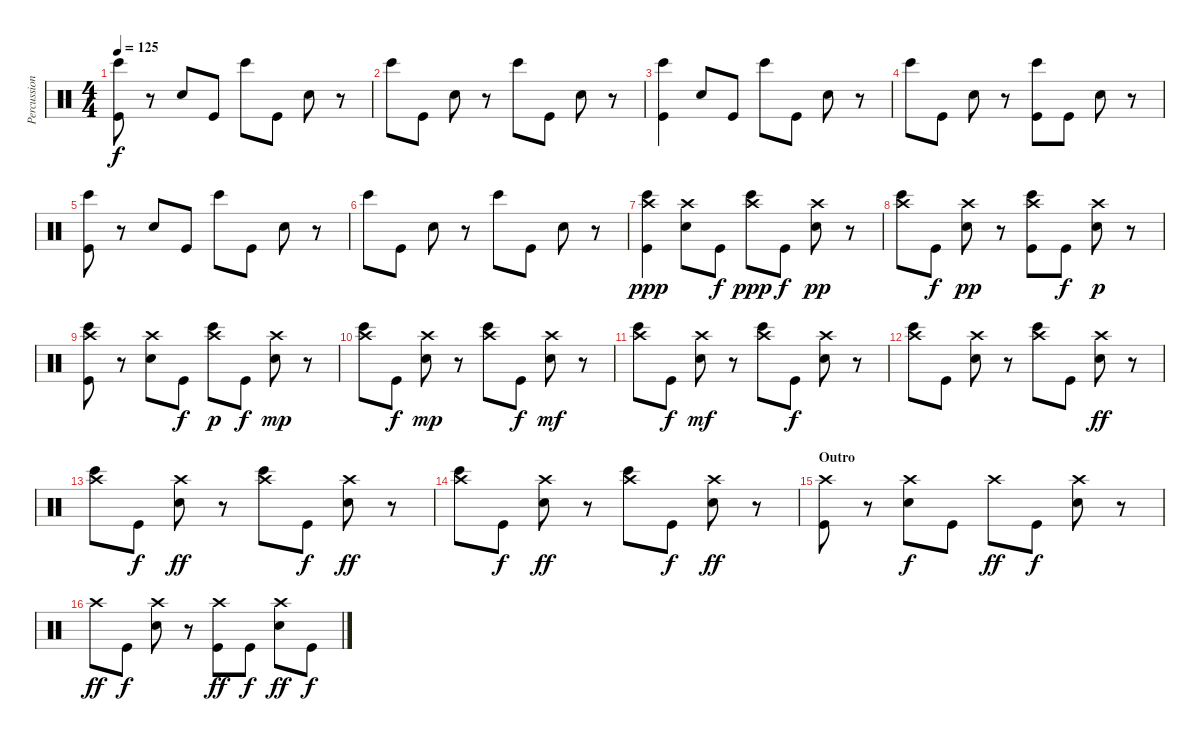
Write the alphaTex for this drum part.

\track ("Percussion" "Percussion") {instrument percussion}
\staff {score}
\articulation defaults
\ts (4 4)
\tempo 125
\clef neutral
\ks c
("Bongo High (hit)" "Kick (hit)").8{dy f} r.8 "Snare (hit) 2".8 "Kick (hit)".8 "Bongo High (hit)".8 "Kick (hit)".8 "Snare (hit) 2".8 r.8 |
"Bongo High (hit)".8 "Kick (hit)".8 "Snare (hit) 2".8 r.8 "Bongo High (hit)".8 "Kick (hit)".8 "Snare (hit) 2".8 r.8 |
("Bongo High (hit)" "Kick (hit)").4 "Snare (hit) 2".8 "Kick (hit)".8 "Bongo High (hit)".8 "Kick (hit)".8 "Snare (hit) 2".8 r.8 |
"Bongo High (hit)".8 "Kick (hit)".8 "Snare (hit) 2".8 r.8 ("Bongo High (hit)" "Kick (hit)").8 "Kick (hit)".8 "Snare (hit) 2".8 r.8 |
("Bongo High (hit)" "Kick (hit)").8 r.8 "Snare (hit) 2".8 "Kick (hit)".8 "Bongo High (hit)".8 "Kick (hit)".8 "Snare (hit) 2".8 r.8 |
"Bongo High (hit)".8 "Kick (hit)".8 "Snare (hit) 2".8 r.8 "Bongo High (hit)".8 "Kick (hit)".8 "Snare (hit) 2".8 r.8 |
("Crash high (hit)" "Bongo High (hit)" "Kick (hit)").4{dy ppp} ("Crash high (hit)" "Snare (hit) 2").8 "Kick (hit)".8{dy f} ("Crash high (hit)" "Bongo High (hit)").8{dy ppp} "Kick (hit)".8{dy f} ("Crash high (hit)" "Snare (hit) 2").8{dy pp} r.8 |
("Crash high (hit)" "Bongo High (hit)").8 "Kick (hit)".8{dy f} ("Crash high (hit)" "Snare (hit) 2").8{dy pp} r.8 ("Crash high (hit)" "Bongo High (hit)" "Kick (hit)").8 "Kick (hit)".8{dy f} ("Crash high (hit)" "Snare (hit) 2").8{dy p} r.8 |
("Crash high (hit)" "Bongo High (hit)" "Kick (hit)").8 r.8 ("Crash high (hit)" "Snare (hit) 2").8 "Kick (hit)".8{dy f} ("Crash high (hit)" "Bongo High (hit)").8{dy p} "Kick (hit)".8{dy f} ("Crash high (hit)" "Snare (hit) 2").8{dy mp} r.8 |
("Crash high (hit)" "Bongo High (hit)").8 "Kick (hit)".8{dy f} ("Crash high (hit)" "Snare (hit) 2").8{dy mp} r.8 ("Crash high (hit)" "Bongo High (hit)").8 "Kick (hit)".8{dy f} ("Crash high (hit)" "Snare (hit) 2").8{dy mf} r.8 |
("Crash high (hit)" "Bongo High (hit)").8 "Kick (hit)".8{dy f} ("Crash high (hit)" "Snare (hit) 2").8{dy mf} r.8 ("Crash high (hit)" "Bongo High (hit)").8 "Kick (hit)".8{dy f} ("Crash high (hit)" "Snare (hit) 2").8 r.8 |
("Crash high (hit)" "Bongo High (hit)").8 "Kick (hit)".8 ("Crash high (hit)" "Snare (hit) 2").8 r.8 ("Crash high (hit)" "Bongo High (hit)").8 "Kick (hit)".8 ("Crash high (hit)" "Snare (hit) 2").8{dy ff} r.8 |
("Crash high (hit)" "Bongo High (hit)").8 "Kick (hit)".8{dy f} ("Crash high (hit)" "Snare (hit) 2").8{dy ff} r.8 ("Crash high (hit)" "Bongo High (hit)").8 "Kick (hit)".8{dy f} ("Crash high (hit)" "Snare (hit) 2").8{dy ff} r.8 |
("Crash high (hit)" "Bongo High (hit)").8 "Kick (hit)".8{dy f} ("Crash high (hit)" "Snare (hit) 2").8{dy ff} r.8 ("Crash high (hit)" "Bongo High (hit)").8 "Kick (hit)".8{dy f} ("Crash high (hit)" "Snare (hit) 2").8{dy ff} r.8 |
\section ("" "Outro")
("Crash high (hit)" "Kick (hit)").8 r.8 ("Crash high (hit)" "Snare (hit) 2").8{dy f} "Kick (hit)".8 "Crash high (hit)".8{dy ff} "Kick (hit)".8{dy f} ("Crash high (hit)" "Snare (hit) 2").8 r.8 |
"Crash high (hit)".8{dy ff} "Kick (hit)".8{dy f} ("Crash high (hit)" "Snare (hit) 2").8 r.8 ("Crash high (hit)" "Kick (hit)").8{dy ff} "Kick (hit)".8{dy f} ("Crash high (hit)" "Snare (hit) 2").8{dy ff} "Kick (hit)".8{dy f}
